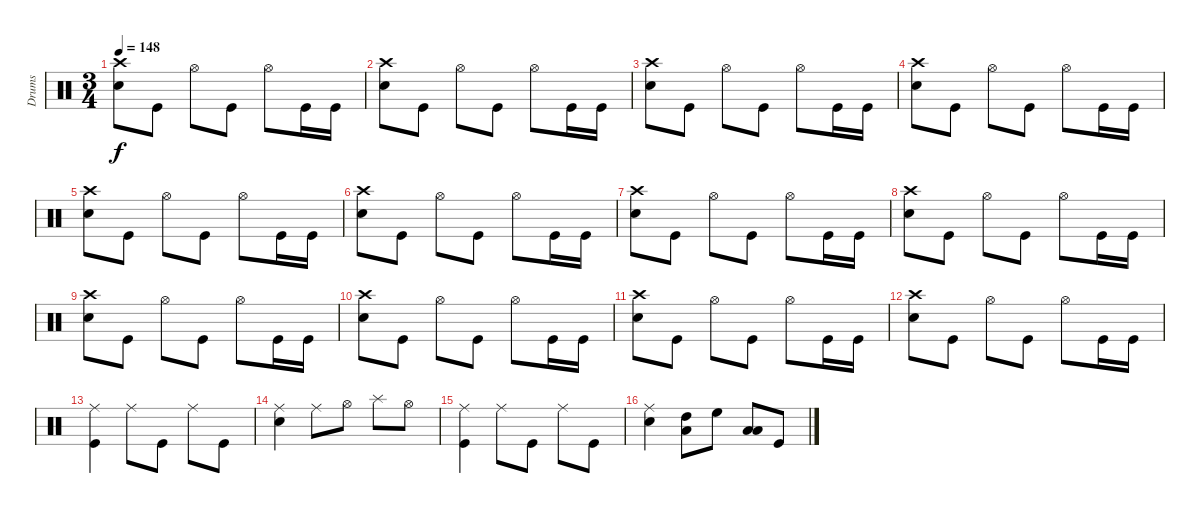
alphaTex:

\track ("Drums" "Drums") {instrument percussion}
\staff {score}
\articulation defaults
\ts (3 4)
\tempo 148
\clef neutral
\ks c
("Crash high (hit)" "Snare (hit) 2").8{dy f} "Kick (hit)".8 "Hi-Hat (open)".8 "Kick (hit)".8 "Hi-Hat (open)".8 "Kick (hit)".16 "Kick (hit)".16 |
("Crash high (hit)" "Snare (hit) 2").8 "Kick (hit)".8 "Hi-Hat (open)".8 "Kick (hit)".8 "Hi-Hat (open)".8 "Kick (hit)".16 "Kick (hit)".16 |
("Crash high (hit)" "Snare (hit) 2").8 "Kick (hit)".8 "Hi-Hat (open)".8 "Kick (hit)".8 "Hi-Hat (open)".8 "Kick (hit)".16 "Kick (hit)".16 |
("Crash high (hit)" "Snare (hit) 2").8 "Kick (hit)".8 "Hi-Hat (open)".8 "Kick (hit)".8 "Hi-Hat (open)".8 "Kick (hit)".16 "Kick (hit)".16 |
("Crash high (hit)" "Snare (hit) 2").8 "Kick (hit)".8 "Hi-Hat (open)".8 "Kick (hit)".8 "Hi-Hat (open)".8 "Kick (hit)".16 "Kick (hit)".16 |
("Crash high (hit)" "Snare (hit) 2").8 "Kick (hit)".8 "Hi-Hat (open)".8 "Kick (hit)".8 "Hi-Hat (open)".8 "Kick (hit)".16 "Kick (hit)".16 |
("Crash high (hit)" "Snare (hit) 2").8 "Kick (hit)".8 "Hi-Hat (open)".8 "Kick (hit)".8 "Hi-Hat (open)".8 "Kick (hit)".16 "Kick (hit)".16 |
("Crash high (hit)" "Snare (hit) 2").8 "Kick (hit)".8 "Hi-Hat (open)".8 "Kick (hit)".8 "Hi-Hat (open)".8 "Kick (hit)".16 "Kick (hit)".16 |
("Crash high (hit)" "Snare (hit) 2").8 "Kick (hit)".8 "Hi-Hat (open)".8 "Kick (hit)".8 "Hi-Hat (open)".8 "Kick (hit)".16 "Kick (hit)".16 |
("Crash high (hit)" "Snare (hit) 2").8 "Kick (hit)".8 "Hi-Hat (open)".8 "Kick (hit)".8 "Hi-Hat (open)".8 "Kick (hit)".16 "Kick (hit)".16 |
("Crash high (hit)" "Snare (hit) 2").8 "Kick (hit)".8 "Hi-Hat (open)".8 "Kick (hit)".8 "Hi-Hat (open)".8 "Kick (hit)".16 "Kick (hit)".16 |
("Crash high (hit)" "Snare (hit) 2").8 "Kick (hit)".8 "Hi-Hat (open)".8 "Kick (hit)".8 "Hi-Hat (open)".8 "Kick (hit)".16 "Kick (hit)".16 |
("Ride (middle)" "Kick (hit)").4 "Ride (middle)".8 "Kick (hit)".8 "Ride (middle)".8 "Kick (hit)".8 |
("Ride (middle)" "Snare (hit) 2").4 "Ride (middle)".8 "Hi-Hat (open)".8 "Splash (hit)".8 "Hi-Hat (open)".8 |
("Ride (middle)" "Kick (hit)").4 "Ride (middle)".8 "Kick (hit)".8 "Ride (middle)".8 "Kick (hit)".8 |
("Ride (middle)" "Snare (hit) 2").4 ("Low Floor Tom (hit)" "High Tom (hit)").8 "High Floor Tom (hit)".8 ("Low Floor Tom (hit)" "Low Tom (hit)").8 "Kick (hit)".8
